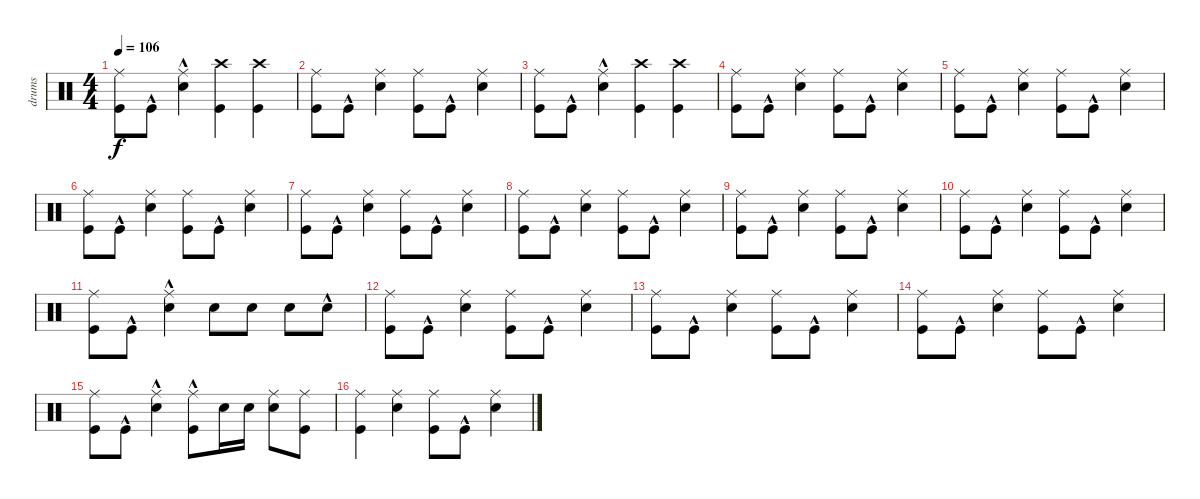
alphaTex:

\track ("drums" "drums") {instrument percussion}
\staff {score}
\articulation defaults
\ts (4 4)
\tempo 106
\clef neutral
\ks c
("Kick (hit)" "Ride (middle)").8{dy f} "Kick (hit)"{hac}.8 ("Snare (hit) 2" "Ride (middle)"{hac}).4 ("Kick (hit)" "Crash high (hit)").4 ("Kick (hit)" "Crash high (hit)").4 |
("Kick (hit)" "Ride (middle)").8 "Kick (hit)"{hac}.8 ("Snare (hit) 2" "Ride (middle)").4 ("Kick (hit)" "Ride (middle)").8 "Kick (hit)"{hac}.8 ("Snare (hit) 2" "Ride (middle)").4 |
("Kick (hit)" "Ride (middle)").8 "Kick (hit)"{hac}.8 ("Snare (hit) 2" "Ride (middle)"{hac}).4 ("Kick (hit)" "Crash high (hit)").4 ("Kick (hit)" "Crash high (hit)").4 |
("Kick (hit)" "Ride (middle)").8 "Kick (hit)"{hac}.8 ("Snare (hit) 2" "Ride (middle)").4 ("Kick (hit)" "Ride (middle)").8 "Kick (hit)"{hac}.8 ("Snare (hit) 2" "Ride (middle)").4 |
("Kick (hit)" "Ride (middle)").8 "Kick (hit)"{hac}.8 ("Snare (hit) 2" "Ride (middle)").4 ("Kick (hit)" "Ride (middle)").8 "Kick (hit)"{hac}.8 ("Snare (hit) 2" "Ride (middle)").4 |
("Kick (hit)" "Ride (middle)").8 "Kick (hit)"{hac}.8 ("Snare (hit) 2" "Ride (middle)").4 ("Kick (hit)" "Ride (middle)").8 "Kick (hit)"{hac}.8 ("Snare (hit) 2" "Ride (middle)").4 |
("Kick (hit)" "Ride (middle)").8 "Kick (hit)"{hac}.8 ("Snare (hit) 2" "Ride (middle)").4 ("Kick (hit)" "Ride (middle)").8 "Kick (hit)"{hac}.8 ("Snare (hit) 2" "Ride (middle)").4 |
("Kick (hit)" "Ride (middle)").8 "Kick (hit)"{hac}.8 ("Snare (hit) 2" "Ride (middle)").4 ("Kick (hit)" "Ride (middle)").8 "Kick (hit)"{hac}.8 ("Snare (hit) 2" "Ride (middle)").4 |
("Kick (hit)" "Ride (middle)").8 "Kick (hit)"{hac}.8 ("Snare (hit) 2" "Ride (middle)").4 ("Kick (hit)" "Ride (middle)").8 "Kick (hit)"{hac}.8 ("Snare (hit) 2" "Ride (middle)").4 |
("Kick (hit)" "Ride (middle)").8 "Kick (hit)"{hac}.8 ("Snare (hit) 2" "Ride (middle)").4 ("Kick (hit)" "Ride (middle)").8 "Kick (hit)"{hac}.8 ("Snare (hit) 2" "Ride (middle)").4 |
("Kick (hit)" "Ride (middle)").8 "Kick (hit)"{hac}.8 ("Snare (hit) 2" "Ride (middle)"{hac}).4 "Snare (hit) 2".8 "Snare (hit) 2".8 "Snare (hit) 2".8 "Snare (hit) 2"{hac}.8 |
("Kick (hit)" "Ride (middle)").8 "Kick (hit)"{hac}.8 ("Snare (hit) 2" "Ride (middle)").4 ("Kick (hit)" "Ride (middle)").8 "Kick (hit)"{hac}.8 ("Snare (hit) 2" "Ride (middle)").4 |
("Kick (hit)" "Ride (middle)").8 "Kick (hit)"{hac}.8 ("Snare (hit) 2" "Ride (middle)").4 ("Kick (hit)" "Ride (middle)").8 "Kick (hit)"{hac}.8 ("Snare (hit) 2" "Ride (middle)").4 |
("Kick (hit)" "Ride (middle)").8 "Kick (hit)"{hac}.8 ("Snare (hit) 2" "Ride (middle)").4 ("Kick (hit)" "Ride (middle)").8 "Kick (hit)"{hac}.8 ("Snare (hit) 2" "Ride (middle)").4 |
("Kick (hit)" "Ride (middle)").8 "Kick (hit)"{hac}.8 ("Snare (hit) 2"{hac} "Ride (middle)").4 ("Kick (hit)"{hac} "Ride (middle)").8 "Snare (hit) 2".16 "Snare (hit) 2".16 ("Snare (hit) 2" "Ride (middle)").8 ("Kick (hit)" "Ride (middle)").8 |
("Kick (hit)" "Ride (middle)").4 ("Snare (hit) 2" "Ride (middle)").4 ("Kick (hit)" "Ride (middle)").8 "Kick (hit)"{hac}.8 ("Snare (hit) 2" "Ride (middle)").4
